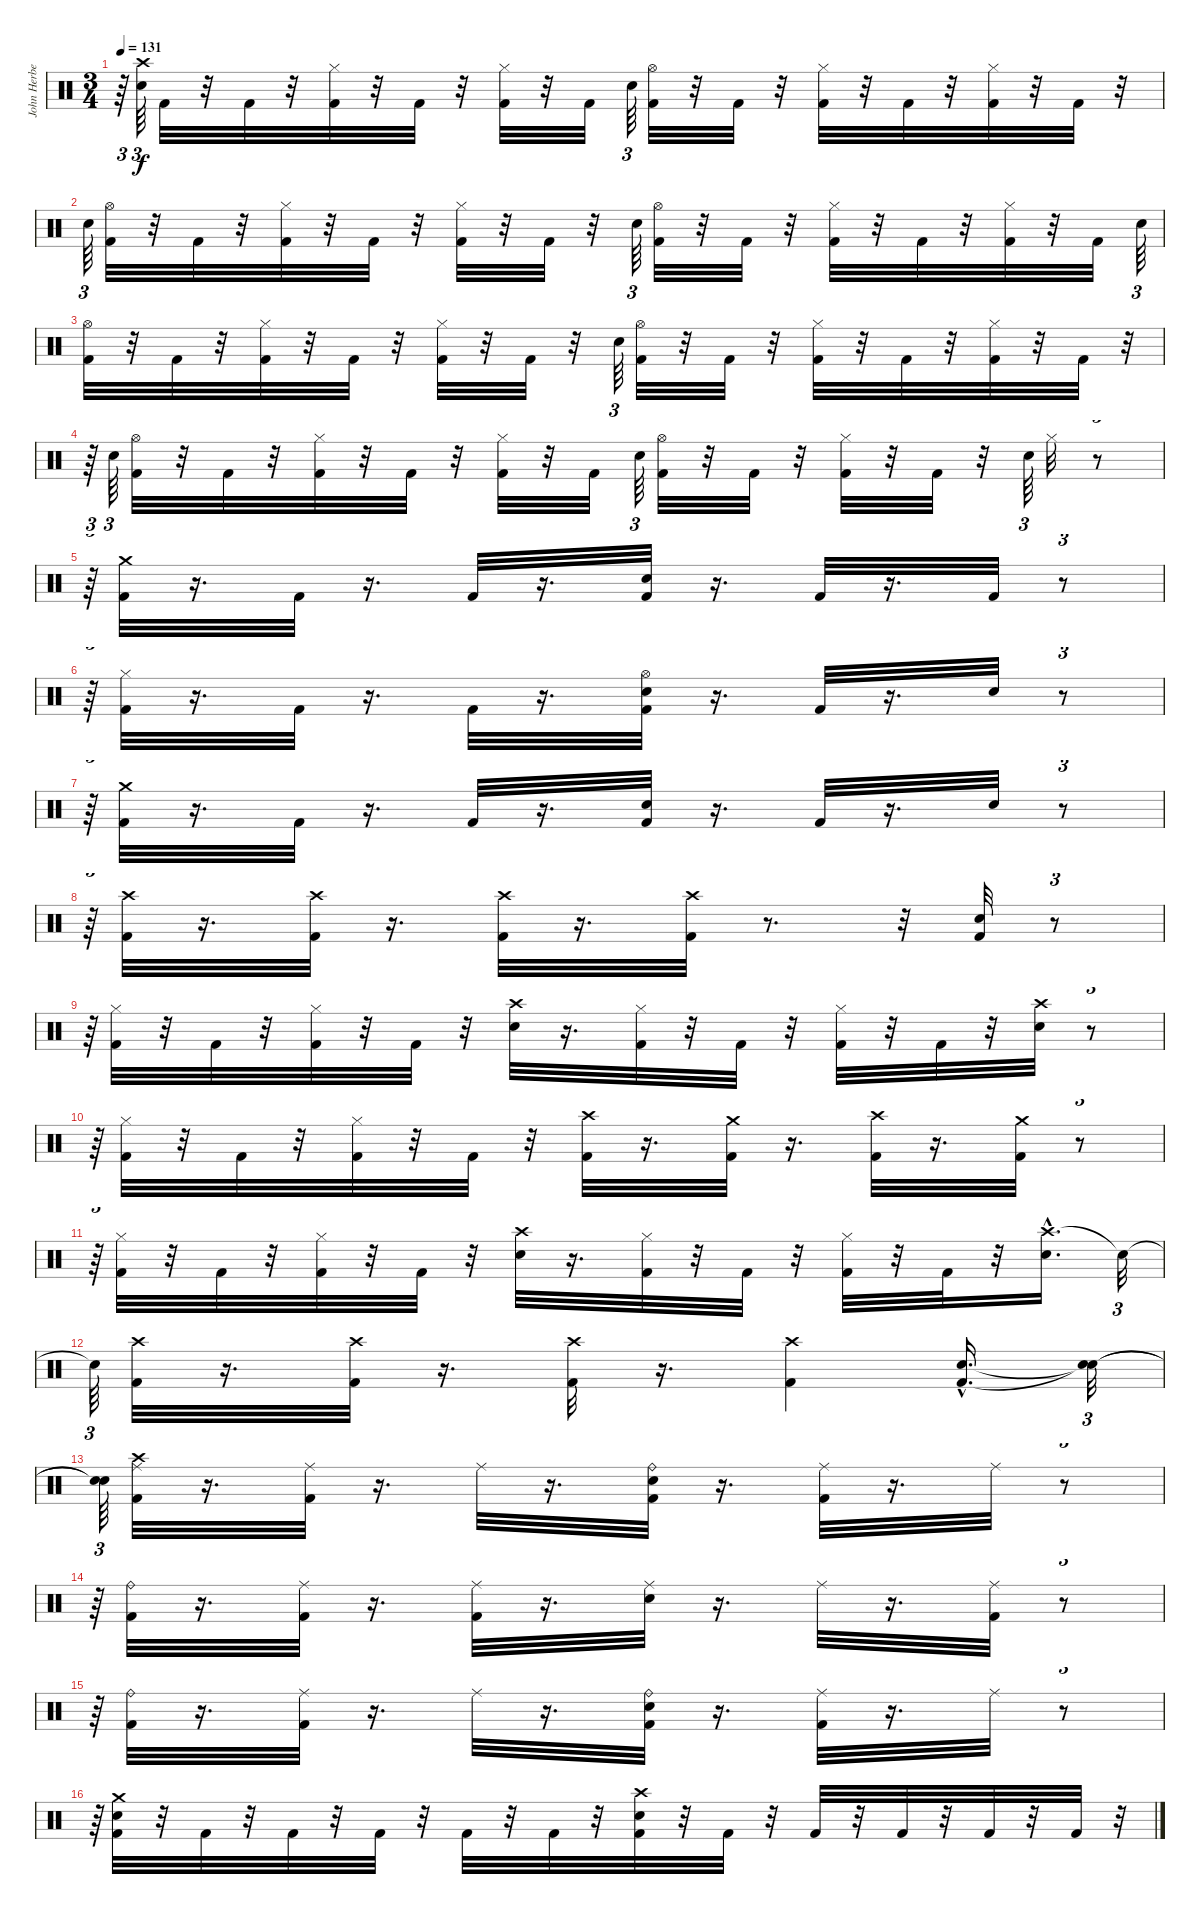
\track ("John Herbert" "John Herbe") {instrument percussion}
\staff {score}
\articulation defaults
\ts (3 4)
\tempo 131
\clef neutral
\ks c
r.64{tu (3 2) dy f} ("Crash high (hit)" "Snare (hit) 2").64{tu (3 2)} "Kick (hit) 2".32 r.32 "Kick (hit) 2".32 r.32 ("Kick (hit) 2" "Hi-Hat (closed)").32 r.32 "Kick (hit) 2".32 r.32 ("Kick (hit) 2" "Hi-Hat (closed)").32 r.32 "Kick (hit) 2".32 "Snare (hit) 2".64{tu (3 2)} ("Kick (hit) 2" "Hi-Hat (open)").32 r.32 "Kick (hit) 2".32 r.32 ("Kick (hit) 2" "Hi-Hat (closed)").32 r.32 "Kick (hit) 2".32 r.32 ("Kick (hit) 2" "Hi-Hat (closed)").32 r.32 "Kick (hit) 2".32 r.32 |
"Snare (hit) 2".64{tu (3 2)} ("Kick (hit) 2" "Hi-Hat (open)").32 r.32 "Kick (hit) 2".32 r.32 ("Kick (hit) 2" "Hi-Hat (closed)").32 r.32 "Kick (hit) 2".32 r.32 ("Kick (hit) 2" "Hi-Hat (closed)").32 r.32 "Kick (hit) 2".32 r.32 "Snare (hit) 2".64{tu (3 2)} ("Kick (hit) 2" "Hi-Hat (open)").32 r.32 "Kick (hit) 2".32 r.32 ("Kick (hit) 2" "Hi-Hat (closed)").32 r.32 "Kick (hit) 2".32 r.32 ("Kick (hit) 2" "Hi-Hat (closed)").32 r.32 "Kick (hit) 2".32 "Snare (hit) 2".64{tu (3 2)} |
("Kick (hit) 2" "Hi-Hat (open)").32 r.32 "Kick (hit) 2".32 r.32 ("Kick (hit) 2" "Hi-Hat (closed)").32 r.32 "Kick (hit) 2".32 r.32 ("Kick (hit) 2" "Hi-Hat (closed)").32 r.32 "Kick (hit) 2".32 r.32 "Snare (hit) 2".64{tu (3 2)} ("Kick (hit) 2" "Hi-Hat (open)").32 r.32 "Kick (hit) 2".32 r.32 ("Kick (hit) 2" "Hi-Hat (closed)").32 r.32 "Kick (hit) 2".32 r.32 ("Kick (hit) 2" "Hi-Hat (closed)").32 r.32 "Kick (hit) 2".32 r.32{tu (3 2)} |
r.64{tu (3 2)} "Snare (hit) 2".64{tu (3 2)} ("Kick (hit) 2" "Hi-Hat (open)").32 r.32 "Kick (hit) 2".32 r.32 ("Kick (hit) 2" "Hi-Hat (closed)").32 r.32 "Kick (hit) 2".32 r.32 ("Kick (hit) 2" "Hi-Hat (closed)").32 r.32 "Kick (hit) 2".32 "Snare (hit) 2".64{tu (3 2)} ("Kick (hit) 2" "Hi-Hat (open)").32 r.32 "Kick (hit) 2".32 r.32 ("Kick (hit) 2" "Hi-Hat (closed)").32 r.32 "Kick (hit) 2".32 r.32 "Snare (hit) 2".64{tu (3 2)} "Hi-Hat (closed)".32 r.8{tu (3 2)} |
r.64{tu (3 2)} ("Crash medium (hit)" "Kick (hit) 2").32 r.16{d} "Kick (hit) 2".32 r.16{d} "Kick (hit) 2".32 r.16{d} ("Snare (hit) 2" "Kick (hit) 2").32 r.16{d} "Kick (hit) 2".32 r.16{d} "Kick (hit) 2".32 r.8{tu (3 2)} |
r.64{tu (3 2)} ("Hi-Hat (closed)" "Kick (hit) 2").32 r.16{d} "Kick (hit) 2".32 r.16{d} "Kick (hit) 2".32 r.16{d} ("Hi-Hat (open)" "Kick (hit) 2" "Snare (hit) 2").32 r.16{d} "Kick (hit) 2".32 r.16{d} "Snare (hit) 2".32 r.8{tu (3 2)} |
r.64{tu (3 2)} ("Crash medium (hit)" "Kick (hit) 2").32 r.16{d} "Kick (hit) 2".32 r.16{d} "Kick (hit) 2".32 r.16{d} ("Snare (hit) 2" "Kick (hit) 2").32 r.16{d} "Kick (hit) 2".32 r.16{d} "Snare (hit) 2".32 r.8{tu (3 2)} |
r.64{tu (3 2)} ("Kick (hit) 2" "Crash high (hit)").32 r.16{d} ("Kick (hit) 2" "Crash high (hit)").32 r.16{d} ("Kick (hit) 2" "Crash high (hit)").32 r.16{d} ("Kick (hit) 2" "Crash high (hit)").32 r.8{d} r.32 ("Snare (hit) 2" "Kick (hit) 2").32 r.8{tu (3 2)} |
r.64{tu (3 2)} ("Hi-Hat (closed)" "Kick (hit) 2").32 r.32 "Kick (hit) 2".32 r.32 ("Hi-Hat (closed)" "Kick (hit) 2").32 r.32 "Kick (hit) 2".32 r.32 ("Crash high (hit)" "Snare (hit) 2").32 r.16{d} ("Hi-Hat (closed)" "Kick (hit) 2").32 r.32 "Kick (hit) 2".32 r.32 ("Hi-Hat (closed)" "Kick (hit) 2").32 r.32 "Kick (hit) 2".32 r.32 ("Crash high (hit)" "Snare (hit) 2").32 r.8{tu (3 2)} |
r.64{tu (3 2)} ("Hi-Hat (closed)" "Kick (hit) 2").32 r.32 "Kick (hit) 2".32 r.32 ("Hi-Hat (closed)" "Kick (hit) 2").32 r.32 "Kick (hit) 2".32 r.32 ("Crash high (hit)" "Kick (hit) 2").32 r.16{d} ("Kick (hit) 2" "Crash medium (hit)").32 r.16{d} ("Crash high (hit)" "Kick (hit) 2").32 r.16{d} ("Kick (hit) 2" "Crash medium (hit)").32 r.8{tu (3 2)} |
r.64{tu (3 2)} ("Hi-Hat (closed)" "Kick (hit) 2").32 r.32 "Kick (hit) 2".32 r.32 ("Hi-Hat (closed)" "Kick (hit) 2").32 r.32 "Kick (hit) 2".32 r.32 ("Crash high (hit)" "Snare (hit) 2").32 r.16{d} ("Hi-Hat (closed)" "Kick (hit) 2").32 r.32 "Kick (hit) 2".32 r.32 ("Hi-Hat (closed)" "Kick (hit) 2").32 r.32 "Kick (hit) 2".32 r.32 ("Crash high (hit)" "Snare (hit) 2"{hac}).16{d} "Snare (hit)"{t}.32{tu (3 2)} |
"Snare (hit)"{t}.64{tu (3 2)} ("Kick (hit) 2" "Crash high (hit)").32 r.16{d} ("Kick (hit) 2" "Crash high (hit)").32 r.16{d} ("Kick (hit) 2" "Crash high (hit)").32 r.16{d} ("Kick (hit) 2" "Crash high (hit)").4 ("Snare (hit) 2"{hac} "Kick (hit) 2"{hac}).16{d} ("Snare (hit)"{t} "Snare (hit)"{t}).32{tu (3 2)} |
("Snare (hit)"{t} "Snare (hit)"{t}).64{tu (3 2)} ("Crash high (hit)" "Kick (hit) 2" "Ride (middle)").32 r.16{d} ("Kick (hit) 2" "Ride (middle)").32 r.16{d} "Ride (middle)".32 r.16{d} ("Kick (hit) 2" "Snare (hit) 2" "Ride (bell)").32 r.16{d} ("Kick (hit) 2" "Ride (middle)").32 r.16{d} "Ride (middle)".32 r.8{tu (3 2)} |
r.64{tu (3 2)} ("Kick (hit) 2" "Ride (bell)").32 r.16{d} ("Kick (hit) 2" "Ride (middle)").32 r.16{d} ("Kick (hit) 2" "Ride (middle)").32 r.16{d} ("Snare (hit) 2" "Ride (middle)").32 r.16{d} "Ride (middle)".32 r.16{d} ("Kick (hit) 2" "Ride (middle)").32 r.8{tu (3 2)} |
r.64{tu (3 2)} ("Kick (hit) 2" "Ride (bell)").32 r.16{d} ("Kick (hit) 2" "Ride (middle)").32 r.16{d} "Ride (middle)".32 r.16{d} ("Kick (hit) 2" "Snare (hit) 2" "Ride (bell)").32 r.16{d} ("Kick (hit) 2" "Ride (middle)").32 r.16{d} "Ride (middle)".32 r.8{tu (3 2)} |
r.64{tu (3 2)} ("Snare (hit) 2" "Kick (hit) 2" "Crash medium (hit)").32 r.32 "Kick (hit) 2".32 r.32 "Kick (hit) 2".32 r.32 "Kick (hit) 2".32 r.32 "Kick (hit) 2".32 r.32 "Kick (hit) 2".32 r.32 ("Crash high (hit)" "Snare (hit) 2" "Kick (hit) 2").32 r.32 "Kick (hit) 2".32 r.32 "Kick (hit) 2".32 r.32 "Kick (hit) 2".32 r.32 "Kick (hit) 2".32 r.32 "Kick (hit) 2".32 r.32{tu (3 2)}
